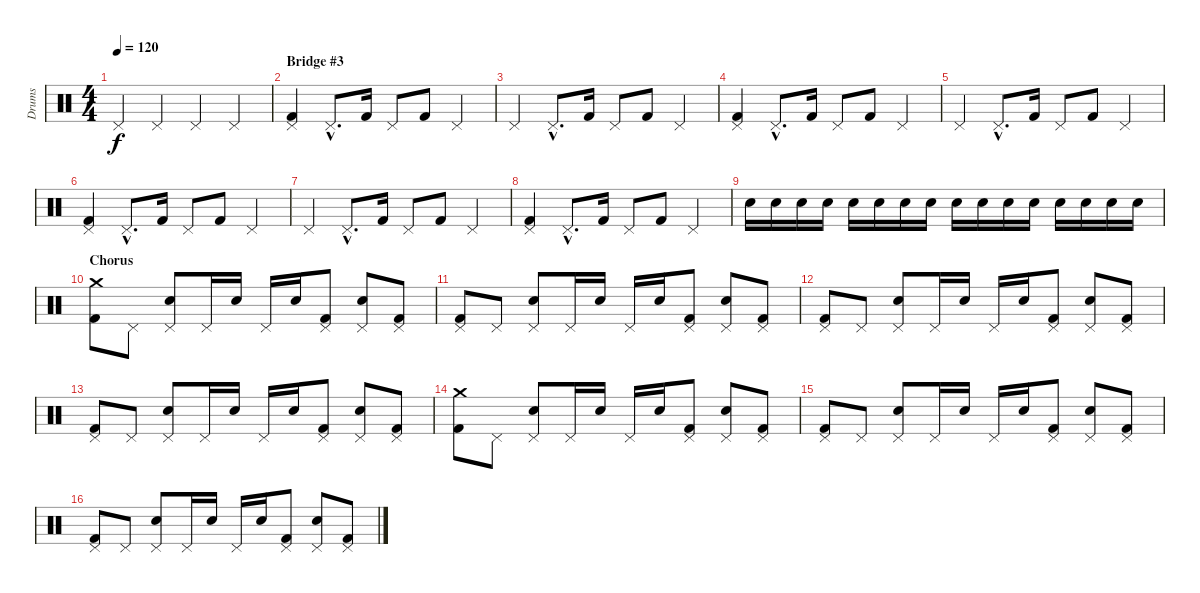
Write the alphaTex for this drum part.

\track ("Drums" "Drums") {instrument percussion}
\staff {score}
\articulation defaults
\ts (4 4)
\tempo 120
\clef neutral
\ks c "Pedal Hi-Hat (hit)".4{dy f} "Pedal Hi-Hat (hit)".4 "Pedal Hi-Hat (hit)".4 "Pedal Hi-Hat (hit)".4
|
\section ("" "Bridge #3")
("Pedal Hi-Hat (hit)" "Kick (hit) 2").4 "Pedal Hi-Hat (hit)"{hac}.8{d} "Kick (hit) 2".16 "Pedal Hi-Hat (hit)".8 "Kick (hit) 2".8 "Pedal Hi-Hat (hit)".4 |
"Pedal Hi-Hat (hit)".4 "Pedal Hi-Hat (hit)"{hac}.8{d} "Kick (hit) 2".16 "Pedal Hi-Hat (hit)".8 "Kick (hit) 2".8 "Pedal Hi-Hat (hit)".4 |
("Pedal Hi-Hat (hit)" "Kick (hit) 2").4 "Pedal Hi-Hat (hit)"{hac}.8{d} "Kick (hit) 2".16 "Pedal Hi-Hat (hit)".8 "Kick (hit) 2".8 "Pedal Hi-Hat (hit)".4 |
"Pedal Hi-Hat (hit)".4 "Pedal Hi-Hat (hit)"{hac}.8{d} "Kick (hit) 2".16 "Pedal Hi-Hat (hit)".8 "Kick (hit) 2".8 "Pedal Hi-Hat (hit)".4 |
("Pedal Hi-Hat (hit)" "Kick (hit) 2").4 "Pedal Hi-Hat (hit)"{hac}.8{d} "Kick (hit) 2".16 "Pedal Hi-Hat (hit)".8 "Kick (hit) 2".8 "Pedal Hi-Hat (hit)".4 |
"Pedal Hi-Hat (hit)".4 "Pedal Hi-Hat (hit)"{hac}.8{d} "Kick (hit) 2".16 "Pedal Hi-Hat (hit)".8 "Kick (hit) 2".8 "Pedal Hi-Hat (hit)".4 |
("Pedal Hi-Hat (hit)" "Kick (hit) 2").4 "Pedal Hi-Hat (hit)"{hac}.8{d} "Kick (hit) 2".16 "Pedal Hi-Hat (hit)".8 "Kick (hit) 2".8 "Pedal Hi-Hat (hit)".4 |
"Electric Snare (hit)".16 "Electric Snare (hit)".16 "Electric Snare (hit)".16 "Electric Snare (hit)".16 "Electric Snare (hit)".16 "Electric Snare (hit)".16 "Electric Snare (hit)".16 "Electric Snare (hit)".16 "Electric Snare (hit)".16 "Electric Snare (hit)".16 "Electric Snare (hit)".16 "Electric Snare (hit)".16 "Electric Snare (hit)".16 "Electric Snare (hit)".16 "Electric Snare (hit)".16 "Electric Snare (hit)".16 |
\section ("" "Chorus")
("Crash medium (hit)" "Kick (hit) 2").8 "Pedal Hi-Hat (hit)".8 ("Pedal Hi-Hat (hit)" "Electric Snare (hit)").8 "Pedal Hi-Hat (hit)".16 "Electric Snare (hit)".16 "Pedal Hi-Hat (hit)".16 "Electric Snare (hit)".16 ("Pedal Hi-Hat (hit)" "Kick (hit) 2").8 ("Pedal Hi-Hat (hit)" "Electric Snare (hit)").8 ("Pedal Hi-Hat (hit)" "Kick (hit) 2").8 |
("Pedal Hi-Hat (hit)" "Kick (hit) 2").8 "Pedal Hi-Hat (hit)".8 ("Pedal Hi-Hat (hit)" "Electric Snare (hit)").8 "Pedal Hi-Hat (hit)".16 "Electric Snare (hit)".16 "Pedal Hi-Hat (hit)".16 "Electric Snare (hit)".16 ("Pedal Hi-Hat (hit)" "Kick (hit) 2").8 ("Pedal Hi-Hat (hit)" "Electric Snare (hit)").8 ("Pedal Hi-Hat (hit)" "Kick (hit) 2").8 |
("Pedal Hi-Hat (hit)" "Kick (hit) 2").8 "Pedal Hi-Hat (hit)".8 ("Pedal Hi-Hat (hit)" "Electric Snare (hit)").8 "Pedal Hi-Hat (hit)".16 "Electric Snare (hit)".16 "Pedal Hi-Hat (hit)".16 "Electric Snare (hit)".16 ("Pedal Hi-Hat (hit)" "Kick (hit) 2").8 ("Pedal Hi-Hat (hit)" "Electric Snare (hit)").8 ("Pedal Hi-Hat (hit)" "Kick (hit) 2").8 |
("Pedal Hi-Hat (hit)" "Kick (hit) 2").8 "Pedal Hi-Hat (hit)".8 ("Pedal Hi-Hat (hit)" "Electric Snare (hit)").8 "Pedal Hi-Hat (hit)".16 "Electric Snare (hit)".16 "Pedal Hi-Hat (hit)".16 "Electric Snare (hit)".16 ("Pedal Hi-Hat (hit)" "Kick (hit) 2").8 ("Pedal Hi-Hat (hit)" "Electric Snare (hit)").8 ("Pedal Hi-Hat (hit)" "Kick (hit) 2").8 |
("Crash medium (hit)" "Kick (hit) 2").8 "Pedal Hi-Hat (hit)".8 ("Pedal Hi-Hat (hit)" "Electric Snare (hit)").8 "Pedal Hi-Hat (hit)".16 "Electric Snare (hit)".16 "Pedal Hi-Hat (hit)".16 "Electric Snare (hit)".16 ("Pedal Hi-Hat (hit)" "Kick (hit) 2").8 ("Pedal Hi-Hat (hit)" "Electric Snare (hit)").8 ("Pedal Hi-Hat (hit)" "Kick (hit) 2").8 |
("Pedal Hi-Hat (hit)" "Kick (hit) 2").8 "Pedal Hi-Hat (hit)".8 ("Pedal Hi-Hat (hit)" "Electric Snare (hit)").8 "Pedal Hi-Hat (hit)".16 "Electric Snare (hit)".16 "Pedal Hi-Hat (hit)".16 "Electric Snare (hit)".16 ("Pedal Hi-Hat (hit)" "Kick (hit) 2").8 ("Pedal Hi-Hat (hit)" "Electric Snare (hit)").8 ("Pedal Hi-Hat (hit)" "Kick (hit) 2").8 |
("Pedal Hi-Hat (hit)" "Kick (hit) 2").8 "Pedal Hi-Hat (hit)".8 ("Pedal Hi-Hat (hit)" "Electric Snare (hit)").8 "Pedal Hi-Hat (hit)".16 "Electric Snare (hit)".16 "Pedal Hi-Hat (hit)".16 "Electric Snare (hit)".16 ("Pedal Hi-Hat (hit)" "Kick (hit) 2").8 ("Pedal Hi-Hat (hit)" "Electric Snare (hit)").8 ("Pedal Hi-Hat (hit)" "Kick (hit) 2").8
